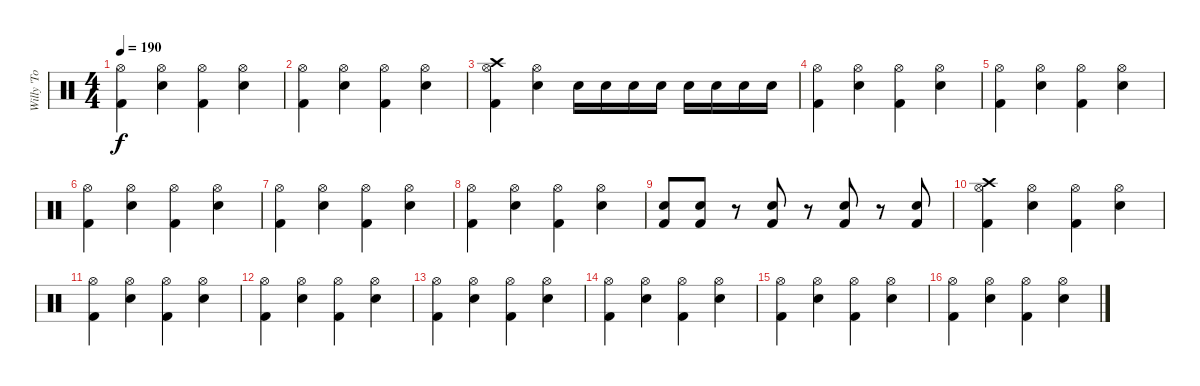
\track ("Willy 'To Big' Hall" "Willy 'To ") {instrument percussion}
\staff {score}
\articulation defaults
\ts (4 4)
\tempo 190
\clef neutral
\ks c
("Hi-Hat (open)" "Kick (hit) 2").4{dy f} ("Hi-Hat (open)" "Snare (hit) 2").4 ("Hi-Hat (open)" "Kick (hit) 2").4 ("Hi-Hat (open)" "Snare (hit) 2").4 |
("Hi-Hat (open)" "Kick (hit) 2").4 ("Hi-Hat (open)" "Snare (hit) 2").4 ("Hi-Hat (open)" "Kick (hit) 2").4 ("Hi-Hat (open)" "Snare (hit) 2").4 |
("Hi-Hat (open)" "Kick (hit) 2" "Crash high (hit)").4 ("Hi-Hat (open)" "Snare (hit) 2").4 "Snare (hit) 2".16 "Snare (hit) 2".16 "Snare (hit) 2".16 "Snare (hit) 2".16 "Snare (hit) 2".16 "Snare (hit) 2".16 "Snare (hit) 2".16 "Snare (hit) 2".16 |
("Hi-Hat (open)" "Kick (hit) 2").4 ("Hi-Hat (open)" "Snare (hit) 2").4 ("Hi-Hat (open)" "Kick (hit) 2").4 ("Hi-Hat (open)" "Snare (hit) 2").4 |
("Hi-Hat (open)" "Kick (hit) 2").4 ("Hi-Hat (open)" "Snare (hit) 2").4 ("Hi-Hat (open)" "Kick (hit) 2").4 ("Hi-Hat (open)" "Snare (hit) 2").4 |
("Hi-Hat (open)" "Kick (hit) 2").4 ("Hi-Hat (open)" "Snare (hit) 2").4 ("Hi-Hat (open)" "Kick (hit) 2").4 ("Hi-Hat (open)" "Snare (hit) 2").4 |
("Hi-Hat (open)" "Kick (hit) 2").4 ("Hi-Hat (open)" "Snare (hit) 2").4 ("Hi-Hat (open)" "Kick (hit) 2").4 ("Hi-Hat (open)" "Snare (hit) 2").4 |
("Hi-Hat (open)" "Kick (hit) 2").4 ("Hi-Hat (open)" "Snare (hit) 2").4 ("Hi-Hat (open)" "Kick (hit) 2").4 ("Hi-Hat (open)" "Snare (hit) 2").4 |
("Snare (hit) 2" "Kick (hit) 2").8 ("Kick (hit) 2" "Snare (hit) 2").8 r.8 ("Snare (hit) 2" "Kick (hit) 2").8 r.8 ("Snare (hit) 2" "Kick (hit) 2").8 r.8 ("Snare (hit) 2" "Kick (hit) 2").8 |
("Hi-Hat (open)" "Kick (hit) 2" "Crash high (hit)").4 ("Hi-Hat (open)" "Snare (hit) 2").4 ("Hi-Hat (open)" "Kick (hit) 2").4 ("Hi-Hat (open)" "Snare (hit) 2").4 |
("Hi-Hat (open)" "Kick (hit) 2").4 ("Hi-Hat (open)" "Snare (hit) 2").4 ("Hi-Hat (open)" "Kick (hit) 2").4 ("Hi-Hat (open)" "Snare (hit) 2").4 |
("Hi-Hat (open)" "Kick (hit) 2").4 ("Hi-Hat (open)" "Snare (hit) 2").4 ("Hi-Hat (open)" "Kick (hit) 2").4 ("Hi-Hat (open)" "Snare (hit) 2").4 |
("Hi-Hat (open)" "Kick (hit) 2").4 ("Hi-Hat (open)" "Snare (hit) 2").4 ("Hi-Hat (open)" "Kick (hit) 2").4 ("Hi-Hat (open)" "Snare (hit) 2").4 |
("Hi-Hat (open)" "Kick (hit) 2").4 ("Hi-Hat (open)" "Snare (hit) 2").4 ("Hi-Hat (open)" "Kick (hit) 2").4 ("Hi-Hat (open)" "Snare (hit) 2").4 |
("Hi-Hat (open)" "Kick (hit) 2").4 ("Hi-Hat (open)" "Snare (hit) 2").4 ("Hi-Hat (open)" "Kick (hit) 2").4 ("Hi-Hat (open)" "Snare (hit) 2").4 |
("Hi-Hat (open)" "Kick (hit) 2").4 ("Hi-Hat (open)" "Snare (hit) 2").4 ("Hi-Hat (open)" "Kick (hit) 2").4 ("Hi-Hat (open)" "Snare (hit) 2").4
